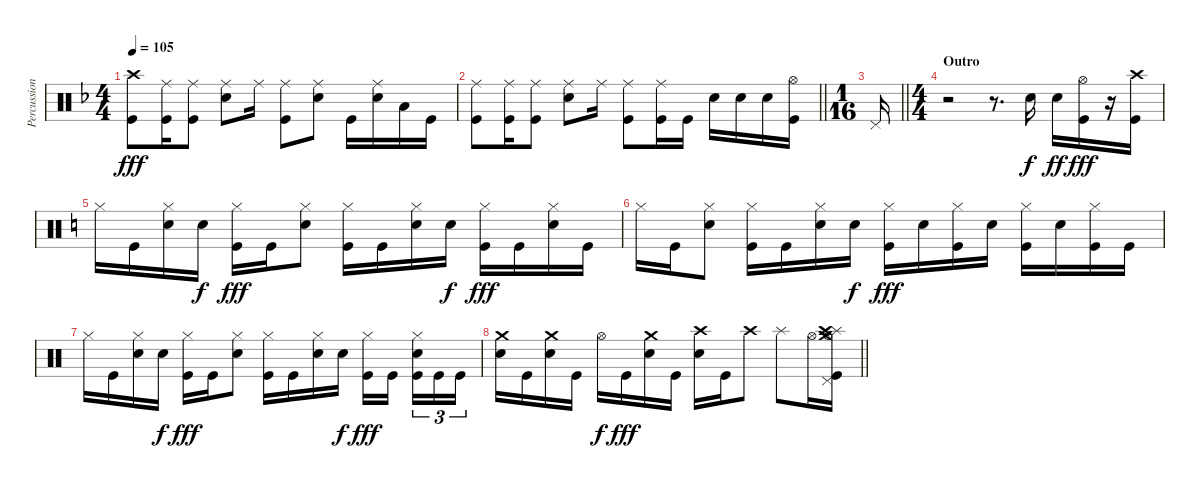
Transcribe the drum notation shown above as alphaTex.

\track ("Percussion" "Percussion") {instrument percussion}
\staff {score}
\articulation defaults
\ts (4 4)
\tempo 105
\clef neutral
\ks f
("Crash high (hit)" "Kick (hit)").8{dy fff} ("Ride (middle)" "Kick (hit)").16 ("Ride (middle)" "Kick (hit)").8 ("Ride (middle)" "Electric Snare (hit)").8 "Ride (middle)".16 ("Ride (middle)" "Kick (hit)").8 ("Ride (middle)" "Electric Snare (hit)").8 "Kick (hit)".16 ("Ride (middle)" "Electric Snare (hit)").16 "Low Tom (hit)".16 "Kick (hit)".16 |
\barLineRight lightlight
("Ride (middle)" "Kick (hit)").8 ("Ride (middle)" "Kick (hit)").16 ("Ride (middle)" "Kick (hit)").8 ("Ride (middle)" "Electric Snare (hit)").8 "Ride (middle)".16 ("Ride (middle)" "Kick (hit)").8 ("Ride (middle)" "Kick (hit)").16 "Kick (hit)".16 "Electric Snare (hit)".16 "Electric Snare (hit)".16 "Electric Snare (hit)".16 ("Hi-Hat (open)" "Kick (hit)").16 |
\ts (1 16)
\barLineRight lightlight "Pedal Hi-Hat (hit)".16
|
\ts (4 4)
\section ("" "Outro")
r.2 r.8{d} "Electric Snare (hit)".16{dy f} "Electric Snare (hit)".16{dy ff} ("Hi-Hat (open)" "Kick (hit)").16{dy fff} r.16 ("Crash high (hit)" "Kick (hit)").16 |
\ks c "Hi-Hat (closed)".16 "Kick (hit)".16
("Hi-Hat (closed)" "Electric Snare (hit)").16 "Electric Snare (hit)".16{dy f} ("Hi-Hat (closed)" "Kick (hit)").16{dy fff} "Kick (hit)".16 ("Hi-Hat (closed)" "Electric Snare (hit)").8 ("Hi-Hat (closed)" "Kick (hit)").16 "Kick (hit)".16 ("Hi-Hat (closed)" "Electric Snare (hit)").16 "Electric Snare (hit)".16{dy f} ("Hi-Hat (closed)" "Kick (hit)").16{dy fff} "Kick (hit)".16 ("Hi-Hat (closed)" "Electric Snare (hit)").16 "Kick (hit)".16 |
"Hi-Hat (closed)".16 "Kick (hit)".16 ("Hi-Hat (closed)" "Electric Snare (hit)").8 ("Hi-Hat (closed)" "Kick (hit)").16 "Kick (hit)".16 ("Hi-Hat (closed)" "Electric Snare (hit)").16 "Electric Snare (hit)".16{dy f} ("Hi-Hat (closed)" "Kick (hit)").16{dy fff} "Electric Snare (hit)".16 ("Hi-Hat (closed)" "Kick (hit)").16 "Electric Snare (hit)".16 ("Hi-Hat (closed)" "Kick (hit)").16 "Electric Snare (hit)".16 ("Hi-Hat (closed)" "Kick (hit)").16 "Kick (hit)".16 |
"Hi-Hat (closed)".16 "Kick (hit)".16 ("Hi-Hat (closed)" "Electric Snare (hit)").16 "Electric Snare (hit)".16{dy f} ("Hi-Hat (closed)" "Kick (hit)").16{dy fff} "Kick (hit)".16 ("Hi-Hat (closed)" "Electric Snare (hit)").8 ("Hi-Hat (closed)" "Kick (hit)").16 "Kick (hit)".16 ("Hi-Hat (closed)" "Electric Snare (hit)").16 "Electric Snare (hit)".16{dy f} ("Hi-Hat (closed)" "Kick (hit)").16{dy fff} "Kick (hit)".16{beam splitsecondary} ("Hi-Hat (closed)" "Electric Snare (hit)" "Kick (hit)").16{tu (3 2)} "Kick (hit)".16{tu (3 2)} "Kick (hit)".16{tu (3 2)} |
\barLineRight lightlight
("Crash medium (hit)" "Electric Snare (hit)").16 "Kick (hit)".16 ("Crash medium (hit)" "Electric Snare (hit)").16 "Kick (hit)".16 "Hi-Hat (open)".16{dy f} "Kick (hit)".16{dy fff} ("Crash medium (hit)" "Electric Snare (hit)").16 "Kick (hit)".16 ("Crash high (hit)" "Electric Snare (hit)").16 "Kick (hit)".16 "Crash high (hit)".8 "Splash (hit)".8 "Hi-Hat (open)".16 ("Splash (hit)" "Pedal Hi-Hat (hit)" "Crash high (hit)" "Crash medium (hit)" "Hi-Hat (open)" "Kick (hit)").16
